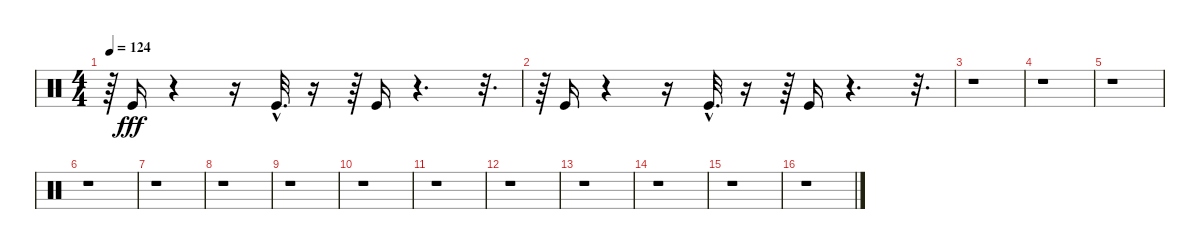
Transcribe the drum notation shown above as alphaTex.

\track "" {instrument percussion}
\staff {score}
\articulation defaults
\ts (4 4)
\tempo 124
\clef neutral
\ks c
r.64{dy fff} "Kick (hit)".16 r.4 r.16 "Kick (hit)"{hac}.32{d} r.16 r.64 "Kick (hit)".16 r.4{d} r.32{d} |
r.64 "Kick (hit)".16 r.4 r.16 "Kick (hit)"{hac}.32{d} r.16 r.64 "Kick (hit)".16 r.4{d} r.32{d} |
r.1 |
r.1 |
r.1 |
r.1 |
r.1 |
r.1 |
r.1 |
r.1 |
r.1 |
r.1 |
r.1 |
r.1 |
r.1 |
r.1
